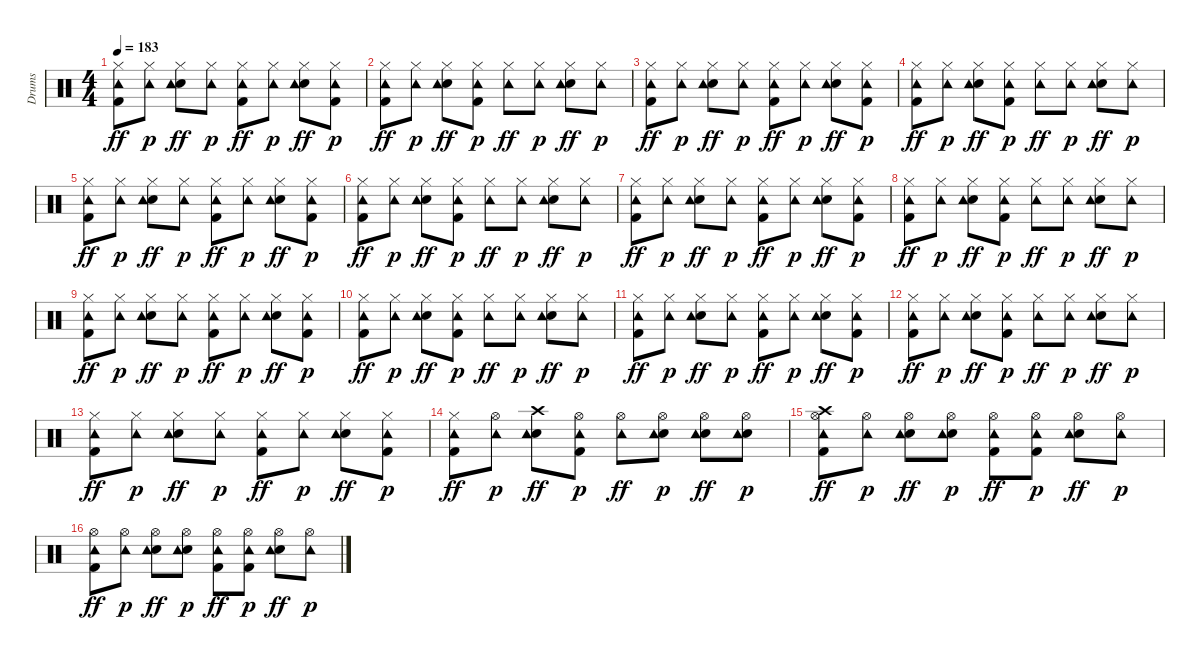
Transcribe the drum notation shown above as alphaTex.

\track ("Drums" "Drums") {instrument percussion}
\staff {score}
\articulation defaults
\ts (4 4)
\tempo 183
\clef neutral
\ks c
("Kick (hit) 2" "Hi-Hat (closed)" "Tambourine (hit)").8{dy ff} ("Hi-Hat (closed)" "Tambourine (hit)").8{dy p} ("Snare (hit) 2" "Hi-Hat (closed)" "Tambourine (hit)").8{dy ff} ("Hi-Hat (closed)" "Tambourine (hit)").8{dy p} ("Kick (hit) 2" "Hi-Hat (closed)" "Tambourine (hit)").8{dy ff} ("Hi-Hat (closed)" "Tambourine (hit)").8{dy p} ("Snare (hit) 2" "Hi-Hat (closed)" "Tambourine (hit)").8{dy ff} ("Kick (hit) 2" "Hi-Hat (closed)" "Tambourine (hit)").8{dy p} |
("Kick (hit) 2" "Hi-Hat (closed)" "Tambourine (hit)").8{dy ff} ("Hi-Hat (closed)" "Tambourine (hit)").8{dy p} ("Snare (hit) 2" "Hi-Hat (closed)" "Tambourine (hit)").8{dy ff} ("Kick (hit) 2" "Hi-Hat (closed)" "Tambourine (hit)").8{dy p} ("Hi-Hat (closed)" "Tambourine (hit)").8{dy ff} ("Hi-Hat (closed)" "Tambourine (hit)").8{dy p} ("Snare (hit) 2" "Hi-Hat (closed)" "Tambourine (hit)").8{dy ff} ("Hi-Hat (closed)" "Tambourine (hit)").8{dy p} |
("Kick (hit) 2" "Hi-Hat (closed)" "Tambourine (hit)").8{dy ff} ("Hi-Hat (closed)" "Tambourine (hit)").8{dy p} ("Snare (hit) 2" "Hi-Hat (closed)" "Tambourine (hit)").8{dy ff} ("Hi-Hat (closed)" "Tambourine (hit)").8{dy p} ("Kick (hit) 2" "Hi-Hat (closed)" "Tambourine (hit)").8{dy ff} ("Hi-Hat (closed)" "Tambourine (hit)").8{dy p} ("Snare (hit) 2" "Hi-Hat (closed)" "Tambourine (hit)").8{dy ff} ("Kick (hit) 2" "Hi-Hat (closed)" "Tambourine (hit)").8{dy p} |
("Kick (hit) 2" "Hi-Hat (closed)" "Tambourine (hit)").8{dy ff} ("Hi-Hat (closed)" "Tambourine (hit)").8{dy p} ("Snare (hit) 2" "Hi-Hat (closed)" "Tambourine (hit)").8{dy ff} ("Kick (hit) 2" "Hi-Hat (closed)" "Tambourine (hit)").8{dy p} ("Hi-Hat (closed)" "Tambourine (hit)").8{dy ff} ("Hi-Hat (closed)" "Tambourine (hit)").8{dy p} ("Snare (hit) 2" "Hi-Hat (closed)" "Tambourine (hit)").8{dy ff} ("Hi-Hat (closed)" "Tambourine (hit)").8{dy p} |
("Kick (hit) 2" "Hi-Hat (closed)" "Tambourine (hit)").8{dy ff} ("Hi-Hat (closed)" "Tambourine (hit)").8{dy p} ("Snare (hit) 2" "Hi-Hat (closed)" "Tambourine (hit)").8{dy ff} ("Hi-Hat (closed)" "Tambourine (hit)").8{dy p} ("Kick (hit) 2" "Hi-Hat (closed)" "Tambourine (hit)").8{dy ff} ("Hi-Hat (closed)" "Tambourine (hit)").8{dy p} ("Snare (hit) 2" "Hi-Hat (closed)" "Tambourine (hit)").8{dy ff} ("Kick (hit) 2" "Hi-Hat (closed)" "Tambourine (hit)").8{dy p} |
("Kick (hit) 2" "Hi-Hat (closed)" "Tambourine (hit)").8{dy ff} ("Hi-Hat (closed)" "Tambourine (hit)").8{dy p} ("Snare (hit) 2" "Hi-Hat (closed)" "Tambourine (hit)").8{dy ff} ("Kick (hit) 2" "Hi-Hat (closed)" "Tambourine (hit)").8{dy p} ("Hi-Hat (closed)" "Tambourine (hit)").8{dy ff} ("Hi-Hat (closed)" "Tambourine (hit)").8{dy p} ("Snare (hit) 2" "Hi-Hat (closed)" "Tambourine (hit)").8{dy ff} ("Hi-Hat (closed)" "Tambourine (hit)").8{dy p} |
("Kick (hit) 2" "Hi-Hat (closed)" "Tambourine (hit)").8{dy ff} ("Hi-Hat (closed)" "Tambourine (hit)").8{dy p} ("Snare (hit) 2" "Hi-Hat (closed)" "Tambourine (hit)").8{dy ff} ("Hi-Hat (closed)" "Tambourine (hit)").8{dy p} ("Kick (hit) 2" "Hi-Hat (closed)" "Tambourine (hit)").8{dy ff} ("Hi-Hat (closed)" "Tambourine (hit)").8{dy p} ("Snare (hit) 2" "Hi-Hat (closed)" "Tambourine (hit)").8{dy ff} ("Kick (hit) 2" "Hi-Hat (closed)" "Tambourine (hit)").8{dy p} |
("Kick (hit) 2" "Hi-Hat (closed)" "Tambourine (hit)").8{dy ff} ("Hi-Hat (closed)" "Tambourine (hit)").8{dy p} ("Snare (hit) 2" "Hi-Hat (closed)" "Tambourine (hit)").8{dy ff} ("Kick (hit) 2" "Hi-Hat (closed)" "Tambourine (hit)").8{dy p} ("Hi-Hat (closed)" "Tambourine (hit)").8{dy ff} ("Hi-Hat (closed)" "Tambourine (hit)").8{dy p} ("Snare (hit) 2" "Hi-Hat (closed)" "Tambourine (hit)").8{dy ff} ("Hi-Hat (closed)" "Tambourine (hit)").8{dy p} |
("Kick (hit) 2" "Hi-Hat (closed)" "Tambourine (hit)").8{dy ff} ("Hi-Hat (closed)" "Tambourine (hit)").8{dy p} ("Snare (hit) 2" "Hi-Hat (closed)" "Tambourine (hit)").8{dy ff} ("Hi-Hat (closed)" "Tambourine (hit)").8{dy p} ("Kick (hit) 2" "Hi-Hat (closed)" "Tambourine (hit)").8{dy ff} ("Hi-Hat (closed)" "Tambourine (hit)").8{dy p} ("Snare (hit) 2" "Hi-Hat (closed)" "Tambourine (hit)").8{dy ff} ("Kick (hit) 2" "Hi-Hat (closed)" "Tambourine (hit)").8{dy p} |
("Kick (hit) 2" "Hi-Hat (closed)" "Tambourine (hit)").8{dy ff} ("Hi-Hat (closed)" "Tambourine (hit)").8{dy p} ("Snare (hit) 2" "Hi-Hat (closed)" "Tambourine (hit)").8{dy ff} ("Kick (hit) 2" "Hi-Hat (closed)" "Tambourine (hit)").8{dy p} ("Hi-Hat (closed)" "Tambourine (hit)").8{dy ff} ("Hi-Hat (closed)" "Tambourine (hit)").8{dy p} ("Snare (hit) 2" "Hi-Hat (closed)" "Tambourine (hit)").8{dy ff} ("Hi-Hat (closed)" "Tambourine (hit)").8{dy p} |
("Kick (hit) 2" "Hi-Hat (closed)" "Tambourine (hit)").8{dy ff} ("Hi-Hat (closed)" "Tambourine (hit)").8{dy p} ("Snare (hit) 2" "Hi-Hat (closed)" "Tambourine (hit)").8{dy ff} ("Hi-Hat (closed)" "Tambourine (hit)").8{dy p} ("Kick (hit) 2" "Hi-Hat (closed)" "Tambourine (hit)").8{dy ff} ("Hi-Hat (closed)" "Tambourine (hit)").8{dy p} ("Snare (hit) 2" "Hi-Hat (closed)" "Tambourine (hit)").8{dy ff} ("Kick (hit) 2" "Hi-Hat (closed)" "Tambourine (hit)").8{dy p} |
("Kick (hit) 2" "Hi-Hat (closed)" "Tambourine (hit)").8{dy ff} ("Hi-Hat (closed)" "Tambourine (hit)").8{dy p} ("Snare (hit) 2" "Hi-Hat (closed)" "Tambourine (hit)").8{dy ff} ("Kick (hit) 2" "Hi-Hat (closed)" "Tambourine (hit)").8{dy p} ("Hi-Hat (closed)" "Tambourine (hit)").8{dy ff} ("Hi-Hat (closed)" "Tambourine (hit)").8{dy p} ("Snare (hit) 2" "Hi-Hat (closed)" "Tambourine (hit)").8{dy ff} ("Hi-Hat (closed)" "Tambourine (hit)").8{dy p} |
("Kick (hit) 2" "Hi-Hat (closed)" "Tambourine (hit)").8{dy ff} ("Hi-Hat (closed)" "Tambourine (hit)").8{dy p} ("Snare (hit) 2" "Hi-Hat (closed)" "Tambourine (hit)").8{dy ff} ("Hi-Hat (closed)" "Tambourine (hit)").8{dy p} ("Kick (hit) 2" "Hi-Hat (closed)" "Tambourine (hit)").8{dy ff} ("Hi-Hat (closed)" "Tambourine (hit)").8{dy p} ("Snare (hit) 2" "Hi-Hat (closed)" "Tambourine (hit)").8{dy ff} ("Kick (hit) 2" "Hi-Hat (closed)" "Tambourine (hit)").8{dy p} |
("Kick (hit) 2" "Hi-Hat (closed)" "Tambourine (hit)").8{dy ff} ("Hi-Hat (open)" "Tambourine (hit)").8{dy p} ("Snare (hit) 2" "Crash high (hit)" "Tambourine (hit)").8{dy ff} ("Kick (hit) 2" "Hi-Hat (open)" "Tambourine (hit)").8{dy p} ("Hi-Hat (open)" "Tambourine (hit)").8{dy ff} ("Snare (hit) 2" "Hi-Hat (open)" "Tambourine (hit)").8{dy p} ("Snare (hit) 2" "Hi-Hat (open)" "Tambourine (hit)").8{dy ff} ("Snare (hit) 2" "Hi-Hat (open)" "Tambourine (hit)").8{dy p} |
("Kick (hit) 2" "Hi-Hat (open)" "Crash high (hit)" "Tambourine (hit)").8{dy ff} ("Hi-Hat (open)" "Tambourine (hit)").8{dy p} ("Snare (hit) 2" "Hi-Hat (open)" "Tambourine (hit)").8{dy ff} ("Snare (hit) 2" "Hi-Hat (open)" "Tambourine (hit)").8{dy p} ("Kick (hit) 2" "Hi-Hat (open)" "Tambourine (hit)").8{dy ff} ("Kick (hit) 2" "Hi-Hat (open)" "Tambourine (hit)").8{dy p} ("Snare (hit) 2" "Hi-Hat (open)" "Tambourine (hit)").8{dy ff} ("Hi-Hat (open)" "Tambourine (hit)").8{dy p} |
("Kick (hit) 2" "Hi-Hat (open)" "Tambourine (hit)").8{dy ff} ("Hi-Hat (open)" "Tambourine (hit)").8{dy p} ("Snare (hit) 2" "Hi-Hat (open)" "Tambourine (hit)").8{dy ff} ("Snare (hit) 2" "Hi-Hat (open)" "Tambourine (hit)").8{dy p} ("Kick (hit) 2" "Hi-Hat (open)" "Tambourine (hit)").8{dy ff} ("Kick (hit) 2" "Hi-Hat (open)" "Tambourine (hit)").8{dy p} ("Snare (hit) 2" "Hi-Hat (open)" "Tambourine (hit)").8{dy ff} ("Hi-Hat (open)" "Tambourine (hit)").8{dy p}
